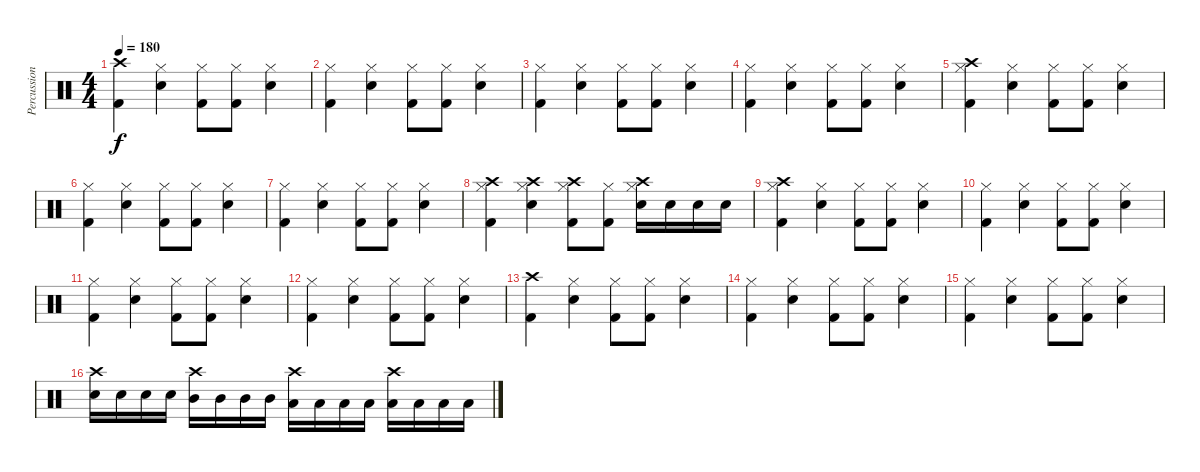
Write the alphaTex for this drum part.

\track ("Percussion" "Percussion") {instrument percussion}
\staff {score}
\articulation defaults
\ts (4 4)
\tempo 180
\clef neutral
\ks c
("Crash high (hit)" "Kick (hit) 2").4{dy f} ("Hi-Hat (closed)" "Snare (hit) 2").4 ("Hi-Hat (closed)" "Kick (hit) 2").8 ("Hi-Hat (closed)" "Kick (hit) 2").8 ("Hi-Hat (closed)" "Snare (hit) 2").4 |
("Hi-Hat (closed)" "Kick (hit) 2").4 ("Hi-Hat (closed)" "Snare (hit) 2").4 ("Hi-Hat (closed)" "Kick (hit) 2").8 ("Hi-Hat (closed)" "Kick (hit) 2").8 ("Hi-Hat (closed)" "Snare (hit) 2").4 |
("Hi-Hat (closed)" "Kick (hit) 2").4 ("Hi-Hat (closed)" "Snare (hit) 2").4 ("Hi-Hat (closed)" "Kick (hit) 2").8 ("Hi-Hat (closed)" "Kick (hit) 2").8 ("Hi-Hat (closed)" "Snare (hit) 2").4 |
("Hi-Hat (closed)" "Kick (hit) 2").4 ("Hi-Hat (closed)" "Snare (hit) 2").4 ("Hi-Hat (closed)" "Kick (hit) 2").8 ("Hi-Hat (closed)" "Kick (hit) 2").8 ("Hi-Hat (closed)" "Snare (hit) 2").4 |
("Crash high (hit)" "Hi-Hat (closed)" "Kick (hit) 2").4 ("Hi-Hat (closed)" "Snare (hit) 2").4 ("Hi-Hat (closed)" "Kick (hit) 2").8 ("Hi-Hat (closed)" "Kick (hit) 2").8 ("Hi-Hat (closed)" "Snare (hit) 2").4 |
("Hi-Hat (closed)" "Kick (hit) 2").4 ("Hi-Hat (closed)" "Snare (hit) 2").4 ("Hi-Hat (closed)" "Kick (hit) 2").8 ("Hi-Hat (closed)" "Kick (hit) 2").8 ("Hi-Hat (closed)" "Snare (hit) 2").4 |
("Hi-Hat (closed)" "Kick (hit) 2").4 ("Hi-Hat (closed)" "Snare (hit) 2").4 ("Hi-Hat (closed)" "Kick (hit) 2").8 ("Hi-Hat (closed)" "Kick (hit) 2").8 ("Hi-Hat (closed)" "Snare (hit) 2").4 |
("Crash high (hit)" "Hi-Hat (closed)" "Kick (hit) 2").4 ("Crash high (hit)" "Hi-Hat (closed)" "Snare (hit) 2").4 ("Crash high (hit)" "Hi-Hat (closed)" "Kick (hit) 2").8 ("Hi-Hat (closed)" "Kick (hit) 2").8 ("Crash high (hit)" "Hi-Hat (closed)" "Snare (hit) 2").16 "Snare (hit) 2".16 "Snare (hit) 2".16 "Snare (hit) 2".16 |
("Crash high (hit)" "Hi-Hat (closed)" "Kick (hit) 2").4 ("Hi-Hat (closed)" "Snare (hit) 2").4 ("Hi-Hat (closed)" "Kick (hit) 2").8 ("Hi-Hat (closed)" "Kick (hit) 2").8 ("Hi-Hat (closed)" "Snare (hit) 2").4 |
("Hi-Hat (closed)" "Kick (hit) 2").4 ("Hi-Hat (closed)" "Snare (hit) 2").4 ("Hi-Hat (closed)" "Kick (hit) 2").8 ("Hi-Hat (closed)" "Kick (hit) 2").8 ("Hi-Hat (closed)" "Snare (hit) 2").4 |
("Hi-Hat (closed)" "Kick (hit) 2").4 ("Hi-Hat (closed)" "Snare (hit) 2").4 ("Hi-Hat (closed)" "Kick (hit) 2").8 ("Hi-Hat (closed)" "Kick (hit) 2").8 ("Hi-Hat (closed)" "Snare (hit) 2").4 |
("Hi-Hat (closed)" "Kick (hit) 2").4 ("Hi-Hat (closed)" "Snare (hit) 2").4 ("Hi-Hat (closed)" "Kick (hit) 2").8 ("Hi-Hat (closed)" "Kick (hit) 2").8 ("Hi-Hat (closed)" "Snare (hit) 2").4 |
("Crash high (hit)" "Kick (hit) 2").4 ("Hi-Hat (closed)" "Snare (hit) 2").4 ("Hi-Hat (closed)" "Kick (hit) 2").8 ("Hi-Hat (closed)" "Kick (hit) 2").8 ("Hi-Hat (closed)" "Snare (hit) 2").4 |
("Hi-Hat (closed)" "Kick (hit) 2").4 ("Hi-Hat (closed)" "Snare (hit) 2").4 ("Hi-Hat (closed)" "Kick (hit) 2").8 ("Hi-Hat (closed)" "Kick (hit) 2").8 ("Hi-Hat (closed)" "Snare (hit) 2").4 |
("Hi-Hat (closed)" "Kick (hit) 2").4 ("Hi-Hat (closed)" "Snare (hit) 2").4 ("Hi-Hat (closed)" "Kick (hit) 2").8 ("Hi-Hat (closed)" "Kick (hit) 2").8 ("Hi-Hat (closed)" "Snare (hit) 2").4 |
("Crash high (hit)" "Snare (hit) 2").16 "Snare (hit) 2".16 "Snare (hit) 2".16 "Snare (hit) 2".16 ("Crash high (hit)" "Mid Tom (hit)").16 "Mid Tom (hit)".16 "Mid Tom (hit)".16 "Mid Tom (hit)".16 ("Crash high (hit)" "Low Tom (hit)").16 "Low Tom (hit)".16 "Low Tom (hit)".16 "Low Tom (hit)".16 ("Crash high (hit)" "Low Floor Tom (hit)").16 "Low Floor Tom (hit)".16 "Low Floor Tom (hit)".16 "Low Floor Tom (hit)".16
